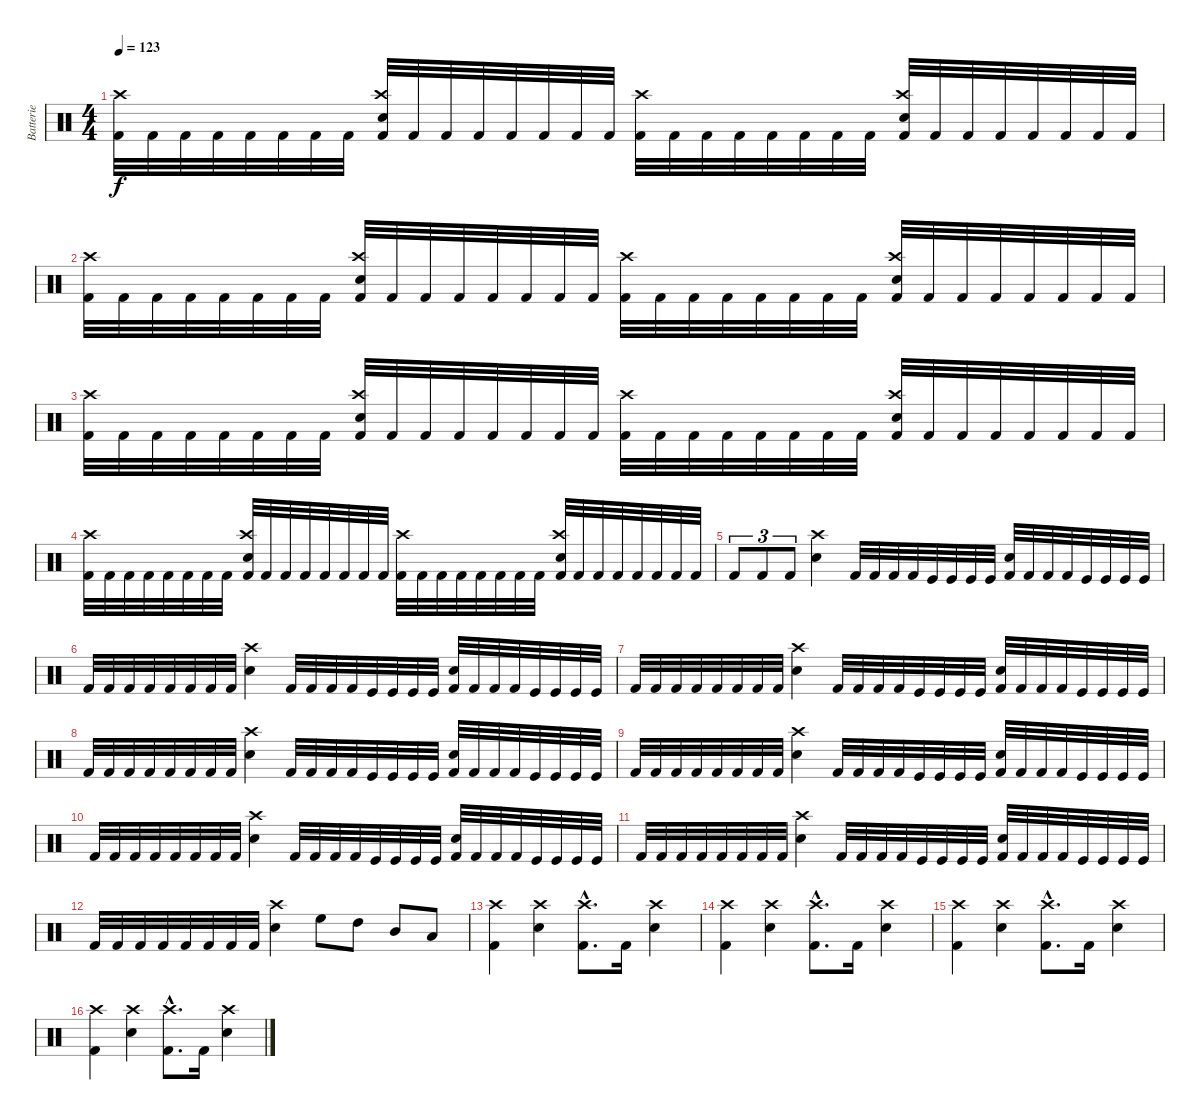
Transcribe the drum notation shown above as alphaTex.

\track ("Batterie" "Batterie") {instrument percussion}
\staff {score}
\articulation defaults
\ts (4 4)
\tempo 123
\clef neutral
\ks c
("Kick (hit) 2" "Crash high (hit)").32{dy f} "Kick (hit) 2".32 "Kick (hit) 2".32 "Kick (hit) 2".32 "Kick (hit) 2".32 "Kick (hit) 2".32 "Kick (hit) 2".32 "Kick (hit) 2".32 ("Kick (hit) 2" "Snare (hit) 2" "Crash high (hit)").32 "Kick (hit) 2".32 "Kick (hit) 2".32 "Kick (hit) 2".32 "Kick (hit) 2".32 "Kick (hit) 2".32 "Kick (hit) 2".32 "Kick (hit) 2".32 ("Kick (hit) 2" "Crash high (hit)").32 "Kick (hit) 2".32 "Kick (hit) 2".32 "Kick (hit) 2".32 "Kick (hit) 2".32 "Kick (hit) 2".32 "Kick (hit) 2".32 "Kick (hit) 2".32 ("Kick (hit) 2" "Snare (hit) 2" "Crash high (hit)").32 "Kick (hit) 2".32 "Kick (hit) 2".32 "Kick (hit) 2".32 "Kick (hit) 2".32 "Kick (hit) 2".32 "Kick (hit) 2".32 "Kick (hit) 2".32 |
("Kick (hit) 2" "Crash high (hit)").32 "Kick (hit) 2".32 "Kick (hit) 2".32 "Kick (hit) 2".32 "Kick (hit) 2".32 "Kick (hit) 2".32 "Kick (hit) 2".32 "Kick (hit) 2".32 ("Kick (hit) 2" "Snare (hit) 2" "Crash high (hit)").32 "Kick (hit) 2".32 "Kick (hit) 2".32 "Kick (hit) 2".32 "Kick (hit) 2".32 "Kick (hit) 2".32 "Kick (hit) 2".32 "Kick (hit) 2".32 ("Kick (hit) 2" "Crash high (hit)").32 "Kick (hit) 2".32 "Kick (hit) 2".32 "Kick (hit) 2".32 "Kick (hit) 2".32 "Kick (hit) 2".32 "Kick (hit) 2".32 "Kick (hit) 2".32 ("Kick (hit) 2" "Snare (hit) 2" "Crash high (hit)").32 "Kick (hit) 2".32 "Kick (hit) 2".32 "Kick (hit) 2".32 "Kick (hit) 2".32 "Kick (hit) 2".32 "Kick (hit) 2".32 "Kick (hit) 2".32 |
("Kick (hit) 2" "Crash high (hit)").32 "Kick (hit) 2".32 "Kick (hit) 2".32 "Kick (hit) 2".32 "Kick (hit) 2".32 "Kick (hit) 2".32 "Kick (hit) 2".32 "Kick (hit) 2".32 ("Kick (hit) 2" "Snare (hit) 2" "Crash high (hit)").32 "Kick (hit) 2".32 "Kick (hit) 2".32 "Kick (hit) 2".32 "Kick (hit) 2".32 "Kick (hit) 2".32 "Kick (hit) 2".32 "Kick (hit) 2".32 ("Kick (hit) 2" "Crash high (hit)").32 "Kick (hit) 2".32 "Kick (hit) 2".32 "Kick (hit) 2".32 "Kick (hit) 2".32 "Kick (hit) 2".32 "Kick (hit) 2".32 "Kick (hit) 2".32 ("Kick (hit) 2" "Snare (hit) 2" "Crash high (hit)").32 "Kick (hit) 2".32 "Kick (hit) 2".32 "Kick (hit) 2".32 "Kick (hit) 2".32 "Kick (hit) 2".32 "Kick (hit) 2".32 "Kick (hit) 2".32 |
("Kick (hit) 2" "Crash high (hit)").32 "Kick (hit) 2".32 "Kick (hit) 2".32 "Kick (hit) 2".32 "Kick (hit) 2".32 "Kick (hit) 2".32 "Kick (hit) 2".32 "Kick (hit) 2".32 ("Kick (hit) 2" "Snare (hit) 2" "Crash high (hit)").32 "Kick (hit) 2".32 "Kick (hit) 2".32 "Kick (hit) 2".32 "Kick (hit) 2".32 "Kick (hit) 2".32 "Kick (hit) 2".32 "Kick (hit) 2".32 ("Kick (hit) 2" "Crash high (hit)").32 "Kick (hit) 2".32 "Kick (hit) 2".32 "Kick (hit) 2".32 "Kick (hit) 2".32 "Kick (hit) 2".32 "Kick (hit) 2".32 "Kick (hit) 2".32 ("Kick (hit) 2" "Snare (hit) 2" "Crash high (hit)").32 "Kick (hit) 2".32 "Kick (hit) 2".32 "Kick (hit) 2".32 "Kick (hit) 2".32 "Kick (hit) 2".32 "Kick (hit) 2".32 "Kick (hit) 2".32 |
\section ("" "")
"Kick (hit) 2".8{tu (3 2)} "Kick (hit) 2".8{tu (3 2)} "Kick (hit) 2".8{tu (3 2)} ("Snare (hit) 2" "Crash high (hit)").4 "Kick (hit) 2".32 "Kick (hit) 2".32 "Kick (hit) 2".32 "Kick (hit) 2".32 "Kick (hit)".32 "Kick (hit)".32 "Kick (hit)".32 "Kick (hit)".32 ("Kick (hit) 2" "Snare (hit) 2").32 "Kick (hit) 2".32 "Kick (hit) 2".32 "Kick (hit) 2".32 "Kick (hit)".32 "Kick (hit)".32 "Kick (hit)".32 "Kick (hit)".32 |
"Kick (hit) 2".32 "Kick (hit) 2".32 "Kick (hit) 2".32 "Kick (hit) 2".32 "Kick (hit) 2".32 "Kick (hit) 2".32 "Kick (hit) 2".32 "Kick (hit) 2".32 ("Snare (hit) 2" "Crash high (hit)").4 "Kick (hit) 2".32 "Kick (hit) 2".32 "Kick (hit) 2".32 "Kick (hit) 2".32 "Kick (hit)".32 "Kick (hit)".32 "Kick (hit)".32 "Kick (hit)".32 ("Kick (hit) 2" "Snare (hit) 2").32 "Kick (hit) 2".32 "Kick (hit) 2".32 "Kick (hit) 2".32 "Kick (hit)".32 "Kick (hit)".32 "Kick (hit)".32 "Kick (hit)".32 |
"Kick (hit) 2".32 "Kick (hit) 2".32 "Kick (hit) 2".32 "Kick (hit) 2".32 "Kick (hit) 2".32 "Kick (hit) 2".32 "Kick (hit) 2".32 "Kick (hit) 2".32 ("Snare (hit) 2" "Crash high (hit)").4 "Kick (hit) 2".32 "Kick (hit) 2".32 "Kick (hit) 2".32 "Kick (hit) 2".32 "Kick (hit)".32 "Kick (hit)".32 "Kick (hit)".32 "Kick (hit)".32 ("Kick (hit) 2" "Snare (hit) 2").32 "Kick (hit) 2".32 "Kick (hit) 2".32 "Kick (hit) 2".32 "Kick (hit)".32 "Kick (hit)".32 "Kick (hit)".32 "Kick (hit)".32 |
"Kick (hit) 2".32 "Kick (hit) 2".32 "Kick (hit) 2".32 "Kick (hit) 2".32 "Kick (hit) 2".32 "Kick (hit) 2".32 "Kick (hit) 2".32 "Kick (hit) 2".32 ("Snare (hit) 2" "Crash high (hit)").4 "Kick (hit) 2".32 "Kick (hit) 2".32 "Kick (hit) 2".32 "Kick (hit) 2".32 "Kick (hit)".32 "Kick (hit)".32 "Kick (hit)".32 "Kick (hit)".32 ("Kick (hit) 2" "Snare (hit) 2").32 "Kick (hit) 2".32 "Kick (hit) 2".32 "Kick (hit) 2".32 "Kick (hit)".32 "Kick (hit)".32 "Kick (hit)".32 "Kick (hit)".32 |
"Kick (hit) 2".32 "Kick (hit) 2".32 "Kick (hit) 2".32 "Kick (hit) 2".32 "Kick (hit) 2".32 "Kick (hit) 2".32 "Kick (hit) 2".32 "Kick (hit) 2".32 ("Snare (hit) 2" "Crash high (hit)").4 "Kick (hit) 2".32 "Kick (hit) 2".32 "Kick (hit) 2".32 "Kick (hit) 2".32 "Kick (hit)".32 "Kick (hit)".32 "Kick (hit)".32 "Kick (hit)".32 ("Kick (hit) 2" "Snare (hit) 2").32 "Kick (hit) 2".32 "Kick (hit) 2".32 "Kick (hit) 2".32 "Kick (hit)".32 "Kick (hit)".32 "Kick (hit)".32 "Kick (hit)".32 |
"Kick (hit) 2".32 "Kick (hit) 2".32 "Kick (hit) 2".32 "Kick (hit) 2".32 "Kick (hit) 2".32 "Kick (hit) 2".32 "Kick (hit) 2".32 "Kick (hit) 2".32 ("Snare (hit) 2" "Crash high (hit)").4 "Kick (hit) 2".32 "Kick (hit) 2".32 "Kick (hit) 2".32 "Kick (hit) 2".32 "Kick (hit)".32 "Kick (hit)".32 "Kick (hit)".32 "Kick (hit)".32 ("Kick (hit) 2" "Snare (hit) 2").32 "Kick (hit) 2".32 "Kick (hit) 2".32 "Kick (hit) 2".32 "Kick (hit)".32 "Kick (hit)".32 "Kick (hit)".32 "Kick (hit)".32 |
"Kick (hit) 2".32 "Kick (hit) 2".32 "Kick (hit) 2".32 "Kick (hit) 2".32 "Kick (hit) 2".32 "Kick (hit) 2".32 "Kick (hit) 2".32 "Kick (hit) 2".32 ("Snare (hit) 2" "Crash high (hit)").4 "Kick (hit) 2".32 "Kick (hit) 2".32 "Kick (hit) 2".32 "Kick (hit) 2".32 "Kick (hit)".32 "Kick (hit)".32 "Kick (hit)".32 "Kick (hit)".32 ("Kick (hit) 2" "Snare (hit) 2").32 "Kick (hit) 2".32 "Kick (hit) 2".32 "Kick (hit) 2".32 "Kick (hit)".32 "Kick (hit)".32 "Kick (hit)".32 "Kick (hit)".32 |
"Kick (hit) 2".32 "Kick (hit) 2".32 "Kick (hit) 2".32 "Kick (hit) 2".32 "Kick (hit) 2".32 "Kick (hit) 2".32 "Kick (hit) 2".32 "Kick (hit) 2".32 ("Snare (hit) 2" "Crash high (hit)").4 "High Floor Tom (hit)".8 "High Tom (hit)".8 "Mid Tom (hit)".8 "Low Tom (hit)".8 |
\section ("" "")
("Kick (hit) 2" "Crash high (hit)").4 ("Snare (hit) 2" "Crash high (hit)").4 ("Kick (hit) 2"{hac} "Crash high (hit)"{hac}).8{d} "Kick (hit) 2".16 ("Snare (hit) 2" "Crash high (hit)").4 |
("Kick (hit) 2" "Crash high (hit)").4 ("Snare (hit) 2" "Crash high (hit)").4 ("Kick (hit) 2"{hac} "Crash high (hit)"{hac}).8{d} "Kick (hit) 2".16 ("Snare (hit) 2" "Crash high (hit)").4 |
("Kick (hit) 2" "Crash high (hit)").4 ("Snare (hit) 2" "Crash high (hit)").4 ("Kick (hit) 2"{hac} "Crash high (hit)"{hac}).8{d} "Kick (hit) 2".16 ("Snare (hit) 2" "Crash high (hit)").4 |
("Kick (hit) 2" "Crash high (hit)").4 ("Snare (hit) 2" "Crash high (hit)").4 ("Kick (hit) 2"{hac} "Crash high (hit)"{hac}).8{d} "Kick (hit) 2".16 ("Snare (hit) 2" "Crash high (hit)").4
